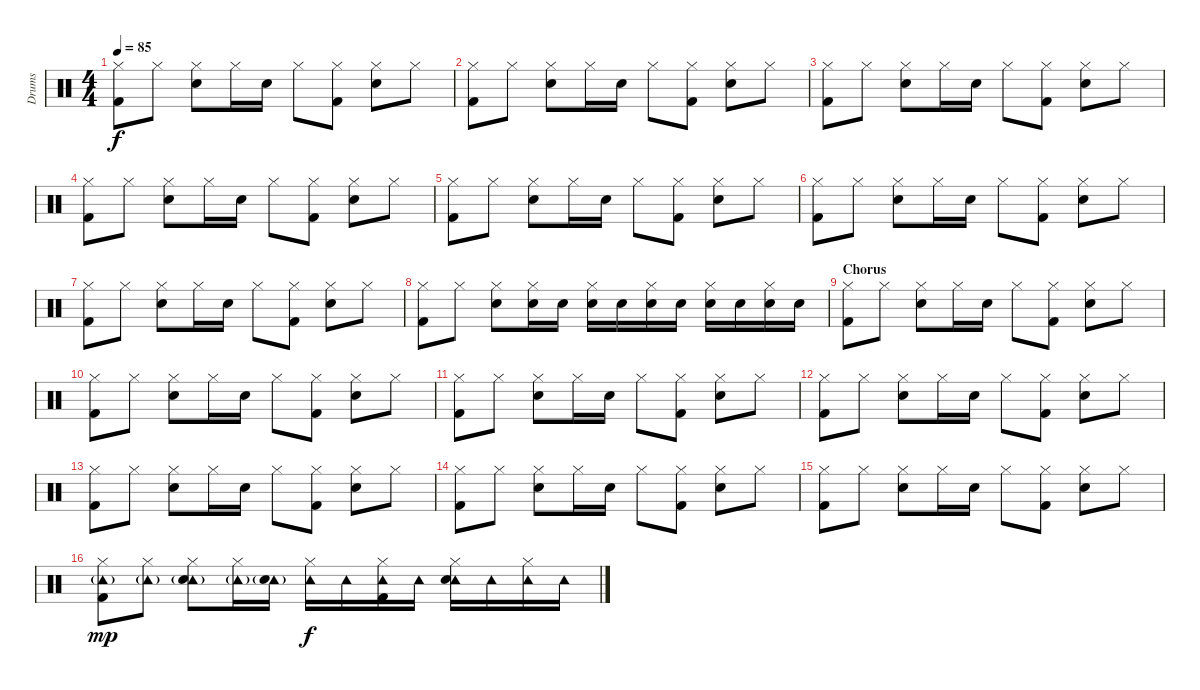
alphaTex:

\track ("Drums" "Drums") {instrument percussion}
\staff {score}
\articulation defaults
\ts (4 4)
\tempo 85
\clef neutral
\ks c
("Hi-Hat (closed)" "Kick (hit) 2").8{dy f} "Hi-Hat (closed)".8 ("Hi-Hat (closed)" "Snare (hit) 2").8 "Hi-Hat (closed)".16 "Snare (hit) 2".16 "Hi-Hat (closed)".8 ("Hi-Hat (closed)" "Kick (hit) 2").8 ("Hi-Hat (closed)" "Snare (hit) 2").8 "Hi-Hat (closed)".8 |
("Hi-Hat (closed)" "Kick (hit) 2").8 "Hi-Hat (closed)".8 ("Hi-Hat (closed)" "Snare (hit) 2").8 "Hi-Hat (closed)".16 "Snare (hit) 2".16 "Hi-Hat (closed)".8 ("Hi-Hat (closed)" "Kick (hit) 2").8 ("Hi-Hat (closed)" "Snare (hit) 2").8 "Hi-Hat (closed)".8 |
("Hi-Hat (closed)" "Kick (hit) 2").8 "Hi-Hat (closed)".8 ("Hi-Hat (closed)" "Snare (hit) 2").8 "Hi-Hat (closed)".16 "Snare (hit) 2".16 "Hi-Hat (closed)".8 ("Hi-Hat (closed)" "Kick (hit) 2").8 ("Hi-Hat (closed)" "Snare (hit) 2").8 "Hi-Hat (closed)".8 |
("Hi-Hat (closed)" "Kick (hit) 2").8 "Hi-Hat (closed)".8 ("Hi-Hat (closed)" "Snare (hit) 2").8 "Hi-Hat (closed)".16 "Snare (hit) 2".16 "Hi-Hat (closed)".8 ("Hi-Hat (closed)" "Kick (hit) 2").8 ("Hi-Hat (closed)" "Snare (hit) 2").8 "Hi-Hat (closed)".8 |
("Hi-Hat (closed)" "Kick (hit) 2").8 "Hi-Hat (closed)".8 ("Hi-Hat (closed)" "Snare (hit) 2").8 "Hi-Hat (closed)".16 "Snare (hit) 2".16 "Hi-Hat (closed)".8 ("Hi-Hat (closed)" "Kick (hit) 2").8 ("Hi-Hat (closed)" "Snare (hit) 2").8 "Hi-Hat (closed)".8 |
("Hi-Hat (closed)" "Kick (hit) 2").8 "Hi-Hat (closed)".8 ("Hi-Hat (closed)" "Snare (hit) 2").8 "Hi-Hat (closed)".16 "Snare (hit) 2".16 "Hi-Hat (closed)".8 ("Hi-Hat (closed)" "Kick (hit) 2").8 ("Hi-Hat (closed)" "Snare (hit) 2").8 "Hi-Hat (closed)".8 |
("Hi-Hat (closed)" "Kick (hit) 2").8 "Hi-Hat (closed)".8 ("Hi-Hat (closed)" "Snare (hit) 2").8 "Hi-Hat (closed)".16 "Snare (hit) 2".16 "Hi-Hat (closed)".8 ("Hi-Hat (closed)" "Kick (hit) 2").8 ("Hi-Hat (closed)" "Snare (hit) 2").8 "Hi-Hat (closed)".8 |
("Hi-Hat (closed)" "Kick (hit) 2").8 "Hi-Hat (closed)".8 ("Hi-Hat (closed)" "Snare (hit) 2").8 ("Hi-Hat (closed)" "Snare (hit) 2").16 "Snare (hit) 2".16 ("Hi-Hat (closed)" "Snare (hit) 2").16 "Snare (hit) 2".16 ("Hi-Hat (closed)" "Snare (hit) 2").16 "Snare (hit) 2".16 ("Hi-Hat (closed)" "Snare (hit) 2").16 "Snare (hit) 2".16 ("Hi-Hat (closed)" "Snare (hit) 2").16 "Snare (hit) 2".16 |
\section ("" "Chorus")
("Hi-Hat (closed)" "Kick (hit) 2").8 "Hi-Hat (closed)".8 ("Hi-Hat (closed)" "Snare (hit) 2").8 "Hi-Hat (closed)".16 "Snare (hit) 2".16 "Hi-Hat (closed)".8 ("Hi-Hat (closed)" "Kick (hit) 2").8 ("Hi-Hat (closed)" "Snare (hit) 2").8 "Hi-Hat (closed)".8 |
("Hi-Hat (closed)" "Kick (hit) 2").8 "Hi-Hat (closed)".8 ("Hi-Hat (closed)" "Snare (hit) 2").8 "Hi-Hat (closed)".16 "Snare (hit) 2".16 "Hi-Hat (closed)".8 ("Hi-Hat (closed)" "Kick (hit) 2").8 ("Hi-Hat (closed)" "Snare (hit) 2").8 "Hi-Hat (closed)".8 |
("Hi-Hat (closed)" "Kick (hit) 2").8 "Hi-Hat (closed)".8 ("Hi-Hat (closed)" "Snare (hit) 2").8 "Hi-Hat (closed)".16 "Snare (hit) 2".16 "Hi-Hat (closed)".8 ("Hi-Hat (closed)" "Kick (hit) 2").8 ("Hi-Hat (closed)" "Snare (hit) 2").8 "Hi-Hat (closed)".8 |
("Hi-Hat (closed)" "Kick (hit) 2").8 "Hi-Hat (closed)".8 ("Hi-Hat (closed)" "Snare (hit) 2").8 "Hi-Hat (closed)".16 "Snare (hit) 2".16 "Hi-Hat (closed)".8 ("Hi-Hat (closed)" "Kick (hit) 2").8 ("Hi-Hat (closed)" "Snare (hit) 2").8 "Hi-Hat (closed)".8 |
("Hi-Hat (closed)" "Kick (hit) 2").8 "Hi-Hat (closed)".8 ("Hi-Hat (closed)" "Snare (hit) 2").8 "Hi-Hat (closed)".16 "Snare (hit) 2".16 "Hi-Hat (closed)".8 ("Hi-Hat (closed)" "Kick (hit) 2").8 ("Hi-Hat (closed)" "Snare (hit) 2").8 "Hi-Hat (closed)".8 |
("Hi-Hat (closed)" "Kick (hit) 2").8 "Hi-Hat (closed)".8 ("Hi-Hat (closed)" "Snare (hit) 2").8 "Hi-Hat (closed)".16 "Snare (hit) 2".16 "Hi-Hat (closed)".8 ("Hi-Hat (closed)" "Kick (hit) 2").8 ("Hi-Hat (closed)" "Snare (hit) 2").8 "Hi-Hat (closed)".8 |
("Hi-Hat (closed)" "Kick (hit) 2").8 "Hi-Hat (closed)".8 ("Hi-Hat (closed)" "Snare (hit) 2").8 "Hi-Hat (closed)".16 "Snare (hit) 2".16 "Hi-Hat (closed)".8 ("Hi-Hat (closed)" "Kick (hit) 2").8 ("Hi-Hat (closed)" "Snare (hit) 2").8 "Hi-Hat (closed)".8 |
("Tambourine (hit)"{g} "Hi-Hat (closed)" "Kick (hit) 2").8{dy mp} ("Tambourine (hit)"{g} "Hi-Hat (closed)").8 ("Tambourine (hit)"{g} "Hi-Hat (closed)" "Snare (hit) 2").8 ("Tambourine (hit)"{g} "Hi-Hat (closed)").16 ("Tambourine (hit)"{g} "Snare (hit) 2").16 ("Tambourine (hit)" "Hi-Hat (closed)").16{dy f} "Tambourine (hit)".16 ("Tambourine (hit)" "Hi-Hat (closed)" "Kick (hit) 2").16 "Tambourine (hit)".16 ("Tambourine (hit)" "Hi-Hat (closed)" "Snare (hit) 2").16 "Tambourine (hit)".16 ("Tambourine (hit)" "Hi-Hat (closed)").16 "Tambourine (hit)".16
